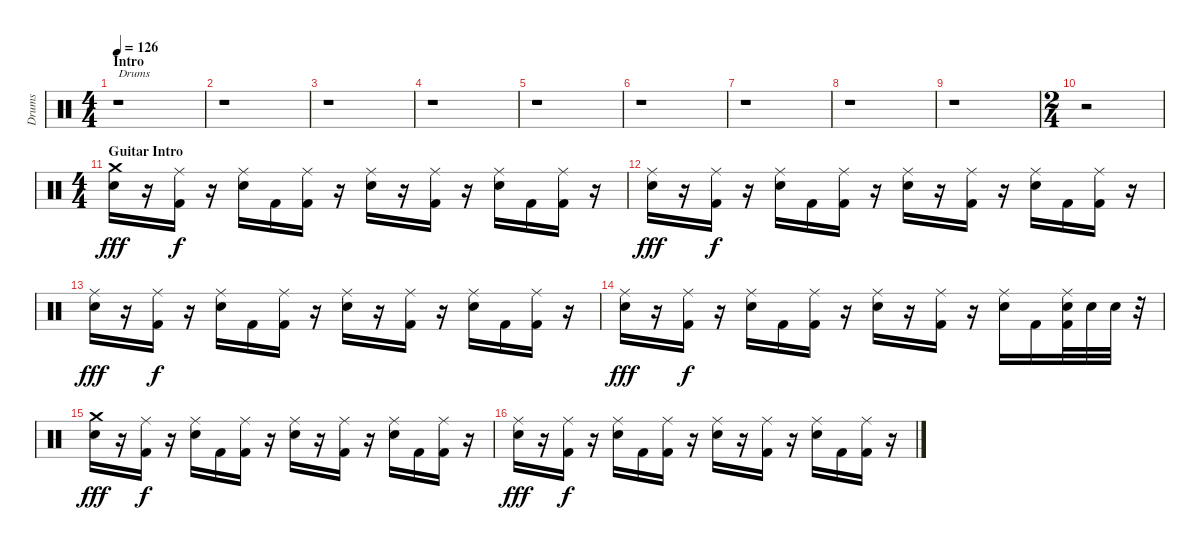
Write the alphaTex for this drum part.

\track ("Drums" "Drums") {instrument percussion}
\staff {score}
\articulation defaults
\ts (4 4)
\section ("" "Intro")
\tempo 126
\clef neutral
\ks c
r.1{txt "Drums" dy fff} |
r.1 |
r.1 |
r.1 |
r.1 |
r.1 |
r.1 |
r.1 |
r.1 |
\ts (2 4)
r.2 |
\ts (4 4)
\section ("" "Guitar Intro")
("Crash medium (hit)" "Snare (hit) 2").16 r.16 ("Ride (middle)" "Kick (hit) 2").16{dy f} r.16 ("Ride (middle)" "Snare (hit) 2").16 "Kick (hit) 2".16 ("Ride (middle)" "Kick (hit) 2").16 r.16 ("Ride (middle)" "Snare (hit) 2").16 r.16 ("Ride (middle)" "Kick (hit) 2").16 r.16 ("Ride (middle)" "Snare (hit) 2").16 "Kick (hit) 2".16 ("Ride (middle)" "Kick (hit) 2").16 r.16 |
("Ride (middle)" "Snare (hit) 2").16{dy fff} r.16 ("Ride (middle)" "Kick (hit) 2").16{dy f} r.16 ("Ride (middle)" "Snare (hit) 2").16 "Kick (hit) 2".16 ("Ride (middle)" "Kick (hit) 2").16 r.16 ("Ride (middle)" "Snare (hit) 2").16 r.16 ("Ride (middle)" "Kick (hit) 2").16 r.16 ("Ride (middle)" "Snare (hit) 2").16 "Kick (hit) 2".16 ("Ride (middle)" "Kick (hit) 2").16 r.16 |
("Ride (middle)" "Snare (hit) 2").16{dy fff} r.16 ("Ride (middle)" "Kick (hit) 2").16{dy f} r.16 ("Ride (middle)" "Snare (hit) 2").16 "Kick (hit) 2".16 ("Ride (middle)" "Kick (hit) 2").16 r.16 ("Ride (middle)" "Snare (hit) 2").16 r.16 ("Ride (middle)" "Kick (hit) 2").16 r.16 ("Ride (middle)" "Snare (hit) 2").16 "Kick (hit) 2".16 ("Ride (middle)" "Kick (hit) 2").16 r.16 |
("Ride (middle)" "Snare (hit) 2").16{dy fff} r.16 ("Ride (middle)" "Kick (hit) 2").16{dy f} r.16 ("Ride (middle)" "Snare (hit) 2").16 "Kick (hit) 2".16 ("Ride (middle)" "Kick (hit) 2").16 r.16 ("Ride (middle)" "Snare (hit) 2").16 r.16 ("Ride (middle)" "Kick (hit) 2").16 r.16 ("Ride (middle)" "Snare (hit) 2").16 "Kick (hit) 2".16 ("Ride (middle)" "Snare (hit) 2" "Kick (hit) 2").32 "Snare (hit) 2".32 "Snare (hit) 2".32 r.32 |
("Crash medium (hit)" "Snare (hit) 2").16{dy fff} r.16 ("Ride (middle)" "Kick (hit) 2").16{dy f} r.16 ("Ride (middle)" "Snare (hit) 2").16 "Kick (hit) 2".16 ("Ride (middle)" "Kick (hit) 2").16 r.16 ("Ride (middle)" "Snare (hit) 2").16 r.16 ("Ride (middle)" "Kick (hit) 2").16 r.16 ("Ride (middle)" "Snare (hit) 2").16 "Kick (hit) 2".16 ("Ride (middle)" "Kick (hit) 2").16 r.16 |
("Ride (middle)" "Snare (hit) 2").16{dy fff} r.16 ("Ride (middle)" "Kick (hit) 2").16{dy f} r.16 ("Ride (middle)" "Snare (hit) 2").16 "Kick (hit) 2".16 ("Ride (middle)" "Kick (hit) 2").16 r.16 ("Ride (middle)" "Snare (hit) 2").16 r.16 ("Ride (middle)" "Kick (hit) 2").16 r.16 ("Ride (middle)" "Snare (hit) 2").16 "Kick (hit) 2".16 ("Ride (middle)" "Kick (hit) 2").16 r.16
